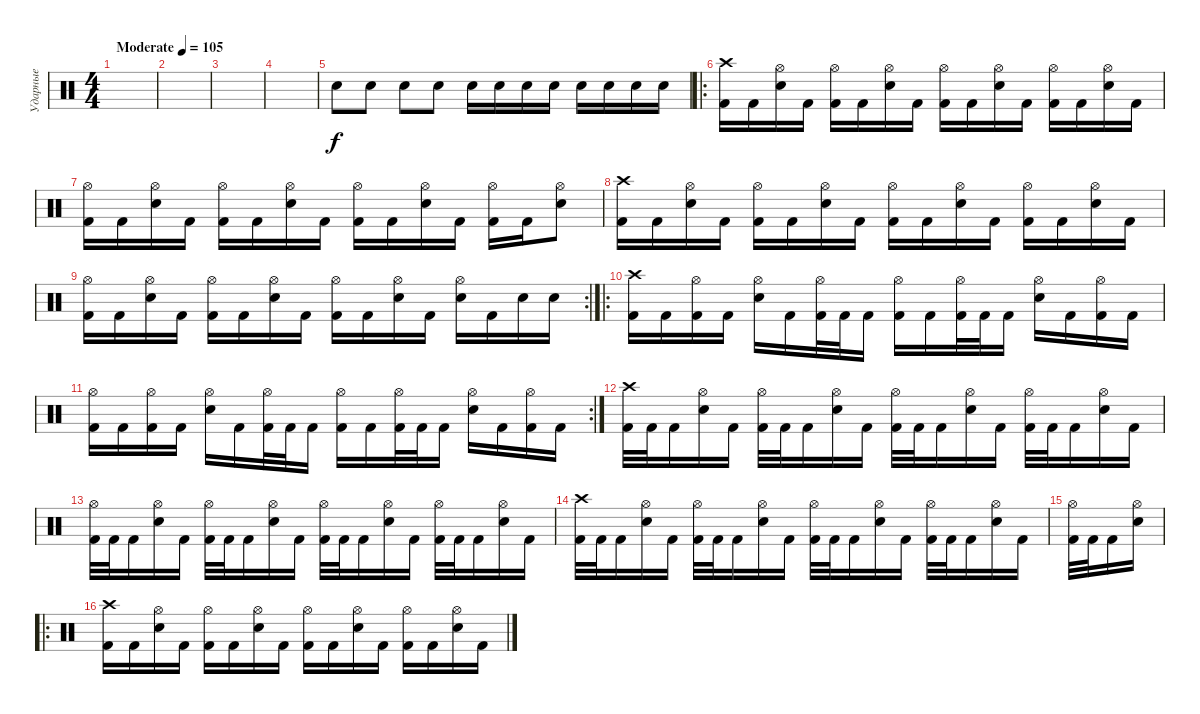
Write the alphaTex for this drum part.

\track ("Ударные" "Ударные") {instrument percussion}
\staff {score}
\articulation defaults
\ts (4 4)
\tempo (105 "Moderate")
\clef neutral
\ks c
|
|
|
|
"Electric Snare (hit)".8 "Electric Snare (hit)".8 "Electric Snare (hit)".8 "Electric Snare (hit)".8 "Electric Snare (hit)".16 "Electric Snare (hit)".16 "Electric Snare (hit)".16 "Electric Snare (hit)".16 "Electric Snare (hit)".16 "Electric Snare (hit)".16 "Electric Snare (hit)".16 "Electric Snare (hit)".16 |
\ro
("Crash high (hit)" "Kick (hit) 2").16 "Kick (hit) 2".16 ("Hi-Hat (open)" "Electric Snare (hit)").16 "Kick (hit) 2".16 ("Hi-Hat (open)" "Kick (hit) 2").16 "Kick (hit) 2".16 ("Hi-Hat (open)" "Electric Snare (hit)").16 "Kick (hit) 2".16 ("Hi-Hat (open)" "Kick (hit) 2").16 "Kick (hit) 2".16 ("Hi-Hat (open)" "Electric Snare (hit)").16 "Kick (hit) 2".16 ("Hi-Hat (open)" "Kick (hit) 2").16 "Kick (hit) 2".16 ("Hi-Hat (open)" "Electric Snare (hit)").16 "Kick (hit) 2".16 |
("Hi-Hat (open)" "Kick (hit) 2").16 "Kick (hit) 2".16 ("Hi-Hat (open)" "Electric Snare (hit)").16 "Kick (hit) 2".16 ("Hi-Hat (open)" "Kick (hit) 2").16 "Kick (hit) 2".16 ("Hi-Hat (open)" "Electric Snare (hit)").16 "Kick (hit) 2".16 ("Hi-Hat (open)" "Kick (hit) 2").16 "Kick (hit) 2".16 ("Hi-Hat (open)" "Electric Snare (hit)").16 "Kick (hit) 2".16 ("Hi-Hat (open)" "Kick (hit) 2").16 "Kick (hit) 2".16 ("Hi-Hat (open)" "Electric Snare (hit)").8 |
("Crash high (hit)" "Kick (hit) 2").16 "Kick (hit) 2".16 ("Hi-Hat (open)" "Electric Snare (hit)").16 "Kick (hit) 2".16 ("Hi-Hat (open)" "Kick (hit) 2").16 "Kick (hit) 2".16 ("Hi-Hat (open)" "Electric Snare (hit)").16 "Kick (hit) 2".16 ("Hi-Hat (open)" "Kick (hit) 2").16 "Kick (hit) 2".16 ("Hi-Hat (open)" "Electric Snare (hit)").16 "Kick (hit) 2".16 ("Hi-Hat (open)" "Kick (hit) 2").16 "Kick (hit) 2".16 ("Hi-Hat (open)" "Electric Snare (hit)").16 "Kick (hit) 2".16 |
\rc 2
("Hi-Hat (open)" "Kick (hit) 2").16 "Kick (hit) 2".16 ("Hi-Hat (open)" "Electric Snare (hit)").16 "Kick (hit) 2".16 ("Hi-Hat (open)" "Kick (hit) 2").16 "Kick (hit) 2".16 ("Hi-Hat (open)" "Electric Snare (hit)").16 "Kick (hit) 2".16 ("Hi-Hat (open)" "Kick (hit) 2").16 "Kick (hit) 2".16 ("Hi-Hat (open)" "Electric Snare (hit)").16 "Kick (hit) 2".16 ("Hi-Hat (open)" "Electric Snare (hit)").16 "Kick (hit) 2".16 "Electric Snare (hit)".16 "Electric Snare (hit)".16 |
\ro
("Crash high (hit)" "Kick (hit) 2").16 "Kick (hit) 2".16 ("Hi-Hat (open)" "Kick (hit) 2").16 "Kick (hit) 2".16 ("Hi-Hat (open)" "Electric Snare (hit)").16 "Kick (hit) 2".16 ("Hi-Hat (open)" "Kick (hit) 2").32 "Kick (hit) 2".32 "Kick (hit) 2".16 ("Hi-Hat (open)" "Kick (hit) 2").16 "Kick (hit) 2".16 ("Hi-Hat (open)" "Kick (hit) 2").32 "Kick (hit) 2".32 "Kick (hit) 2".16 ("Hi-Hat (open)" "Electric Snare (hit)").16 "Kick (hit) 2".16 ("Hi-Hat (open)" "Kick (hit) 2").16 "Kick (hit) 2".16 |
\rc 2
("Hi-Hat (open)" "Kick (hit) 2").16 "Kick (hit) 2".16 ("Hi-Hat (open)" "Kick (hit) 2").16 "Kick (hit) 2".16 ("Hi-Hat (open)" "Electric Snare (hit)").16 "Kick (hit) 2".16 ("Hi-Hat (open)" "Kick (hit) 2").32 "Kick (hit) 2".32 "Kick (hit) 2".16 ("Hi-Hat (open)" "Kick (hit) 2").16 "Kick (hit) 2".16 ("Hi-Hat (open)" "Kick (hit) 2").32 "Kick (hit) 2".32 "Kick (hit) 2".16 ("Hi-Hat (open)" "Electric Snare (hit)").16 "Kick (hit) 2".16 ("Hi-Hat (open)" "Kick (hit) 2").16 "Kick (hit) 2".16 |
("Crash high (hit)" "Kick (hit) 2").32 "Kick (hit) 2".32 "Kick (hit) 2".16 ("Hi-Hat (open)" "Electric Snare (hit)").16 "Kick (hit) 2".16 ("Hi-Hat (open)" "Kick (hit) 2").32 "Kick (hit) 2".32 "Kick (hit) 2".16 ("Hi-Hat (open)" "Electric Snare (hit)").16 "Kick (hit) 2".16 ("Hi-Hat (open)" "Kick (hit) 2").32 "Kick (hit) 2".32 "Kick (hit) 2".16 ("Hi-Hat (open)" "Electric Snare (hit)").16 "Kick (hit) 2".16 ("Hi-Hat (open)" "Kick (hit) 2").32 "Kick (hit) 2".32 "Kick (hit) 2".16 ("Hi-Hat (open)" "Electric Snare (hit)").16 "Kick (hit) 2".16 |
("Hi-Hat (open)" "Kick (hit) 2").32 "Kick (hit) 2".32 "Kick (hit) 2".16 ("Hi-Hat (open)" "Electric Snare (hit)").16 "Kick (hit) 2".16 ("Hi-Hat (open)" "Kick (hit) 2").32 "Kick (hit) 2".32 "Kick (hit) 2".16 ("Hi-Hat (open)" "Electric Snare (hit)").16 "Kick (hit) 2".16 ("Hi-Hat (open)" "Kick (hit) 2").32 "Kick (hit) 2".32 "Kick (hit) 2".16 ("Hi-Hat (open)" "Electric Snare (hit)").16 "Kick (hit) 2".16 ("Hi-Hat (open)" "Kick (hit) 2").32 "Kick (hit) 2".32 "Kick (hit) 2".16 ("Hi-Hat (open)" "Electric Snare (hit)").16 "Kick (hit) 2".16 |
("Crash high (hit)" "Kick (hit) 2").32 "Kick (hit) 2".32 "Kick (hit) 2".16 ("Hi-Hat (open)" "Electric Snare (hit)").16 "Kick (hit) 2".16 ("Hi-Hat (open)" "Kick (hit) 2").32 "Kick (hit) 2".32 "Kick (hit) 2".16 ("Hi-Hat (open)" "Electric Snare (hit)").16 "Kick (hit) 2".16 ("Hi-Hat (open)" "Kick (hit) 2").32 "Kick (hit) 2".32 "Kick (hit) 2".16 ("Hi-Hat (open)" "Electric Snare (hit)").16 "Kick (hit) 2".16 ("Hi-Hat (open)" "Kick (hit) 2").32 "Kick (hit) 2".32 "Kick (hit) 2".16 ("Hi-Hat (open)" "Electric Snare (hit)").16 "Kick (hit) 2".16 |
("Hi-Hat (open)" "Kick (hit) 2").32 "Kick (hit) 2".32 "Kick (hit) 2".16 ("Hi-Hat (open)" "Electric Snare (hit)").16 |
\ro
("Crash high (hit)" "Kick (hit) 2").16 "Kick (hit) 2".16 ("Hi-Hat (open)" "Electric Snare (hit)").16 "Kick (hit) 2".16 ("Hi-Hat (open)" "Kick (hit) 2").16 "Kick (hit) 2".16 ("Hi-Hat (open)" "Electric Snare (hit)").16 "Kick (hit) 2".16 ("Hi-Hat (open)" "Kick (hit) 2").16 "Kick (hit) 2".16 ("Hi-Hat (open)" "Electric Snare (hit)").16 "Kick (hit) 2".16 ("Hi-Hat (open)" "Kick (hit) 2").16 "Kick (hit) 2".16 ("Hi-Hat (open)" "Electric Snare (hit)").16 "Kick (hit) 2".16
